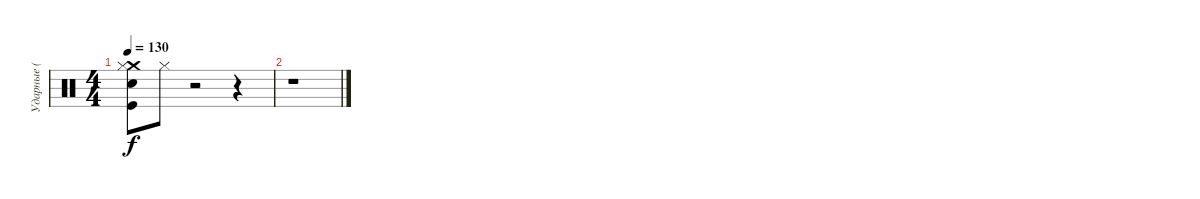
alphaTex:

\track (" Ударные (Котов)" " Ударные (") {instrument percussion}
\staff {score}
\articulation defaults
\ts (4 4)
\tempo 130
\clef neutral
\ks c
("Snare (hit) 2" "Crash medium (hit)" "Kick (hit)" "Hi-Hat (closed)").8{dy f} "Hi-Hat (closed)".8 r.2 r.4 |
r.1
